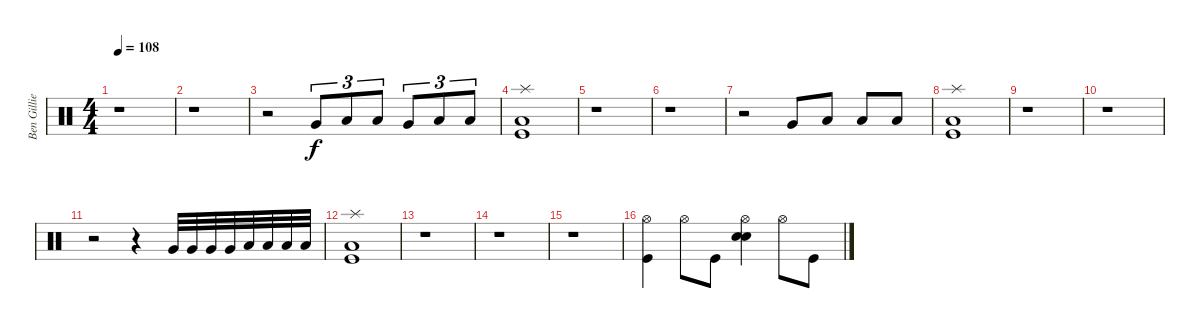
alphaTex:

\track ("Ben Gillies (percus)" "Ben Gillie") {instrument percussion}
\staff {score}
\articulation defaults
\ts (4 4)
\tempo 108
\clef neutral
\ks c
r.1{dy f} |
r.1 |
r.2 "Very Low Tom (hit)".8{tu (3 2)} "Low Floor Tom (hit)".8{tu (3 2)} "Low Floor Tom (hit)".8{tu (3 2)} "Very Low Tom (hit)".8{tu (3 2)} "Low Floor Tom (hit)".8{tu (3 2)} "Low Floor Tom (hit)".8{tu (3 2)} |
("Splash (hit)" "Low Floor Tom (hit)" "Kick (hit)").1 |
r.1 |
r.1 |
r.2 "Very Low Tom (hit)".8 "Low Floor Tom (hit)".8 "Low Floor Tom (hit)".8 "Low Floor Tom (hit)".8 |
("Splash (hit)" "Low Floor Tom (hit)" "Kick (hit)").1 |
r.1 |
r.1 |
r.2 r.4 "Very Low Tom (hit)".32 "Very Low Tom (hit)".32 "Very Low Tom (hit)".32 "Very Low Tom (hit)".32 "Low Floor Tom (hit)".32 "Low Floor Tom (hit)".32 "Low Floor Tom (hit)".32 "Low Floor Tom (hit)".32 |
("Splash (hit)" "Low Floor Tom (hit)" "Kick (hit)").1 |
r.1 |
r.1 |
r.1 |
("Hi-Hat (open)" "Kick (hit)").4 "Hi-Hat (open)".8 "Kick (hit)".8 ("Electric Snare (hit)" "Snare (hit) 2" "Hi-Hat (open)").4 "Hi-Hat (open)".8 "Kick (hit)".8
